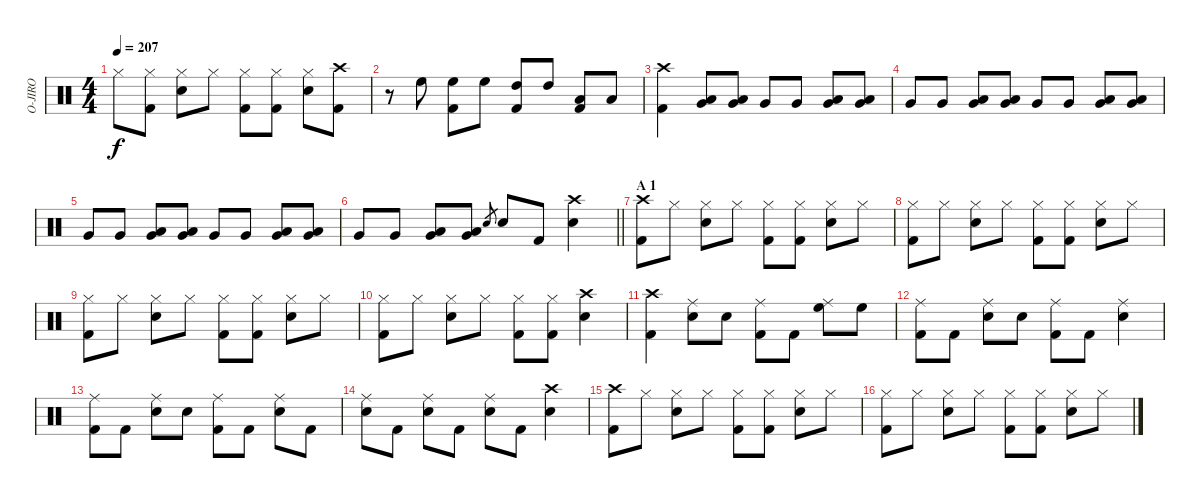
\track ("O-JIRO" "O-JIRO") {instrument percussion}
\staff {score}
\articulation defaults
\ts (4 4)
\tempo 207
\clef neutral
\ks c "Hi-Hat (closed)".8{dy f}
("Hi-Hat (closed)" "Kick (hit) 2").8 ("Hi-Hat (closed)" "Snare (hit) 2").8 "Hi-Hat (closed)".8 ("Hi-Hat (closed)" "Kick (hit) 2").8 ("Hi-Hat (closed)" "Kick (hit) 2").8 ("Hi-Hat (closed)" "Snare (hit) 2").8 ("Crash high (hit)" "Kick (hit) 2").8 |
r.8 "High Floor Tom (hit)".8 ("High Floor Tom (hit)" "Kick (hit) 2").8 "High Floor Tom (hit)".8 ("High Tom (hit)" "Kick (hit) 2").8 "High Tom (hit)".8 ("Low Tom (hit)" "Kick (hit) 2").8 "Low Tom (hit)".8 |
("Crash high (hit)" "Kick (hit) 2").4 ("Low Tom (hit)" "Very Low Tom (hit)").8 ("Low Tom (hit)" "Very Low Tom (hit)").8 "Very Low Tom (hit)".8 "Very Low Tom (hit)".8 ("Low Tom (hit)" "Very Low Tom (hit)").8 ("Low Tom (hit)" "Very Low Tom (hit)").8 |
"Very Low Tom (hit)".8 "Very Low Tom (hit)".8 ("Low Tom (hit)" "Very Low Tom (hit)").8 ("Low Tom (hit)" "Very Low Tom (hit)").8 "Very Low Tom (hit)".8 "Very Low Tom (hit)".8 ("Low Tom (hit)" "Very Low Tom (hit)").8 ("Low Tom (hit)" "Very Low Tom (hit)").8 |
"Very Low Tom (hit)".8 "Very Low Tom (hit)".8 ("Low Tom (hit)" "Very Low Tom (hit)").8 ("Low Tom (hit)" "Very Low Tom (hit)").8 "Very Low Tom (hit)".8 "Very Low Tom (hit)".8 ("Low Tom (hit)" "Very Low Tom (hit)").8 ("Low Tom (hit)" "Very Low Tom (hit)").8 |
\barLineRight lightlight "Very Low Tom (hit)".8 "Very Low Tom (hit)".8
("Low Tom (hit)" "Very Low Tom (hit)").8 ("Low Tom (hit)" "Very Low Tom (hit)").8 "Snare (hit) 2".8{gr} "Snare (hit) 2".8 "Kick (hit) 2".8 ("Crash high (hit)" "Snare (hit) 2").4 |
\section ("" "A 1")
("Crash high (hit)" "Kick (hit) 2").8 "Hi-Hat (closed)".8 ("Hi-Hat (closed)" "Snare (hit) 2").8 "Hi-Hat (closed)".8 ("Hi-Hat (closed)" "Kick (hit) 2").8 ("Hi-Hat (closed)" "Kick (hit) 2").8 ("Hi-Hat (closed)" "Snare (hit) 2").8 "Hi-Hat (closed)".8 |
("Hi-Hat (closed)" "Kick (hit) 2").8 "Hi-Hat (closed)".8 ("Hi-Hat (closed)" "Snare (hit) 2").8 "Hi-Hat (closed)".8 ("Hi-Hat (closed)" "Kick (hit) 2").8 ("Hi-Hat (closed)" "Kick (hit) 2").8 ("Hi-Hat (closed)" "Snare (hit) 2").8 "Hi-Hat (closed)".8 |
("Hi-Hat (closed)" "Kick (hit) 2").8 "Hi-Hat (closed)".8 ("Hi-Hat (closed)" "Snare (hit) 2").8 "Hi-Hat (closed)".8 ("Hi-Hat (closed)" "Kick (hit) 2").8 ("Hi-Hat (closed)" "Kick (hit) 2").8 ("Hi-Hat (closed)" "Snare (hit) 2").8 "Hi-Hat (closed)".8 |
("Hi-Hat (closed)" "Kick (hit) 2").8 "Hi-Hat (closed)".8 ("Hi-Hat (closed)" "Snare (hit) 2").8 "Hi-Hat (closed)".8 ("Hi-Hat (closed)" "Kick (hit) 2").8 ("Hi-Hat (closed)" "Kick (hit) 2").8 ("Crash high (hit)" "Snare (hit) 2").4 |
("Crash high (hit)" "Kick (hit) 2").4 ("Ride (middle)" "Snare (hit) 2").8 "Snare (hit) 2".8 ("Ride (middle)" "Kick (hit) 2").8 "Kick (hit) 2".8 ("Ride (middle)" "High Floor Tom (hit)").8 "High Floor Tom (hit)".8 |
("Kick (hit) 2" "Ride (middle)").8 "Kick (hit) 2".8 ("Ride (middle)" "Snare (hit) 2").8 "Snare (hit) 2".8 ("Ride (middle)" "Kick (hit) 2").8 "Kick (hit) 2".8 ("Ride (middle)" "Snare (hit) 2").4 |
("Kick (hit) 2" "Ride (middle)").8 "Kick (hit) 2".8 ("Ride (middle)" "Snare (hit) 2").8 "Snare (hit) 2".8 ("Ride (middle)" "Kick (hit) 2").8 "Kick (hit) 2".8 ("Ride (middle)" "Snare (hit) 2").8 "Kick (hit) 2".8 |
("Ride (middle)" "Snare (hit) 2").8 "Kick (hit) 2".8 ("Ride (middle)" "Snare (hit) 2").8 "Kick (hit) 2".8 ("Ride (middle)" "Snare (hit) 2").8 "Kick (hit) 2".8 ("Crash high (hit)" "Snare (hit) 2").4 |
("Crash high (hit)" "Kick (hit) 2").8 "Hi-Hat (closed)".8 ("Hi-Hat (closed)" "Snare (hit) 2").8 "Hi-Hat (closed)".8 ("Hi-Hat (closed)" "Kick (hit) 2").8 ("Hi-Hat (closed)" "Kick (hit) 2").8 ("Hi-Hat (closed)" "Snare (hit) 2").8 "Hi-Hat (closed)".8 |
("Hi-Hat (closed)" "Kick (hit) 2").8 "Hi-Hat (closed)".8 ("Hi-Hat (closed)" "Snare (hit) 2").8 "Hi-Hat (closed)".8 ("Hi-Hat (closed)" "Kick (hit) 2").8 ("Hi-Hat (closed)" "Kick (hit) 2").8 ("Hi-Hat (closed)" "Snare (hit) 2").8 "Hi-Hat (closed)".8
